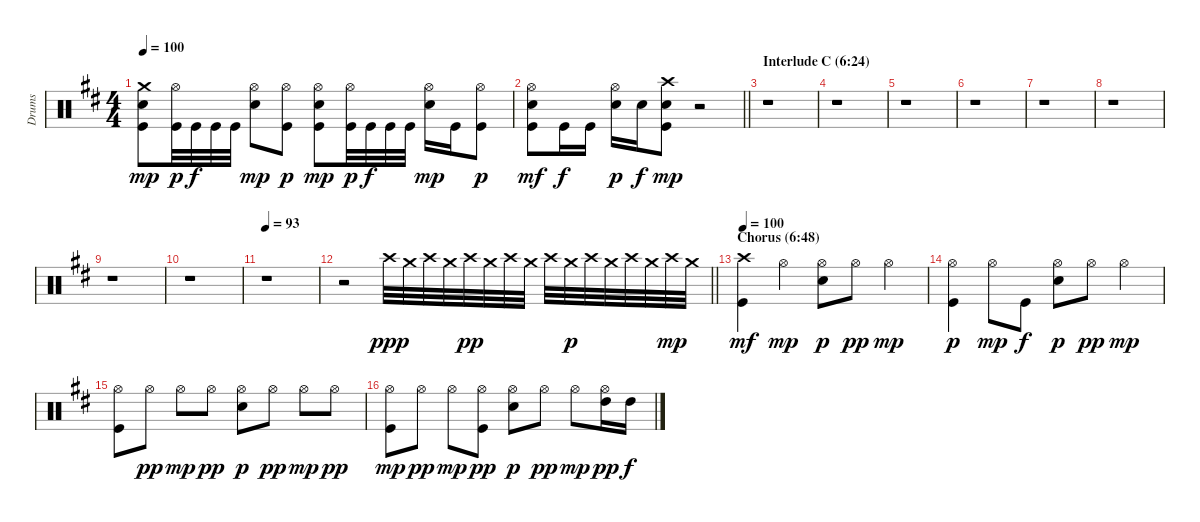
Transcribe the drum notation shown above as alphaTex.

\track ("Drums" "Drums") {instrument percussion}
\staff {score}
\articulation defaults
\ts (4 4)
\tempo 100
\clef neutral
\ks bminor
("Crash medium (hit)" "Snare (hit) 2" "Kick (hit)").8{dy mp} ("Hi-Hat (open)" "Kick (hit)").32{dy p} "Kick (hit)".32{dy f} "Kick (hit)".32 "Kick (hit)".32 ("Hi-Hat (open)" "Snare (hit) 2").8{dy mp} ("Hi-Hat (open)" "Kick (hit)").8{dy p} ("Hi-Hat (open)" "Snare (hit) 2" "Kick (hit)").8{dy mp} ("Hi-Hat (open)" "Kick (hit)").32{dy p} "Kick (hit)".32{dy f} "Kick (hit)".32 "Kick (hit)".32 ("Hi-Hat (open)" "Snare (hit) 2").16{dy mp} "Kick (hit)".16 ("Hi-Hat (open)" "Kick (hit)").8{dy p} |
\barLineRight lightlight
("Hi-Hat (open)" "Snare (hit) 2" "Kick (hit)").8{dy mf} "Kick (hit)".16{dy f} "Kick (hit)".16 ("Hi-Hat (open)" "Snare (hit) 2").16{dy p} "Snare (hit) 2".16{dy f} ("Crash high (hit)" "Snare (hit) 2" "Kick (hit)").8{dy mp} r.2 |
\section ("" "Interlude C (6:24)")
r.1 |
r.1 |
r.1 |
r.1 |
r.1 |
r.1 |
r.1 |
r.1 |
\tempo 93
r.1 |
\barLineRight lightlight
r.2 "Crash high (hit)".32{dy ppp} "Crash medium (hit)".32 "Crash high (hit)".32 "Crash medium (hit)".32 "Crash high (hit)".32{dy pp} "Crash medium (hit)".32 "Crash high (hit)".32 "Crash medium (hit)".32 "Crash high (hit)".32 "Crash medium (hit)".32{dy p} "Crash high (hit)".32 "Crash medium (hit)".32 "Crash high (hit)".32 "Crash medium (hit)".32 "Crash high (hit)".32{dy mp} "Crash medium (hit)".32 |
\section ("" "Chorus (6:48)")
\tempo 100
("Crash high (hit)" "Kick (hit)").4{dy mf} "Hi-Hat (open)".4{dy mp} ("Hi-Hat (open)" "Snare (hit) 2").8{dy p} "Hi-Hat (open)".8{dy pp} "Hi-Hat (open)".4{dy mp} |
("Hi-Hat (open)" "Kick (hit)").4{dy p} "Hi-Hat (open)".8{dy mp} "Kick (hit)".8{dy f} ("Hi-Hat (open)" "Snare (hit) 2").8{dy p} "Hi-Hat (open)".8{dy pp} "Hi-Hat (open)".4{dy mp} |
("Hi-Hat (open)" "Kick (hit)").8 "Hi-Hat (open)".8{dy pp} "Hi-Hat (open)".8{dy mp} "Hi-Hat (open)".8{dy pp} ("Hi-Hat (open)" "Snare (hit) 2").8{dy p} "Hi-Hat (open)".8{dy pp} "Hi-Hat (open)".8{dy mp} "Hi-Hat (open)".8{dy pp} |
("Hi-Hat (open)" "Kick (hit)").8{dy mp} "Hi-Hat (open)".8{dy pp} "Hi-Hat (open)".8{dy mp} ("Hi-Hat (open)" "Kick (hit)").8{dy pp} ("Hi-Hat (open)" "Snare (hit) 2").8{dy p} "Hi-Hat (open)".8{dy pp} "Hi-Hat (open)".8{dy mp} ("Hi-Hat (open)" "High Tom (hit)").16{dy pp} "High Tom (hit)".16{dy f}
